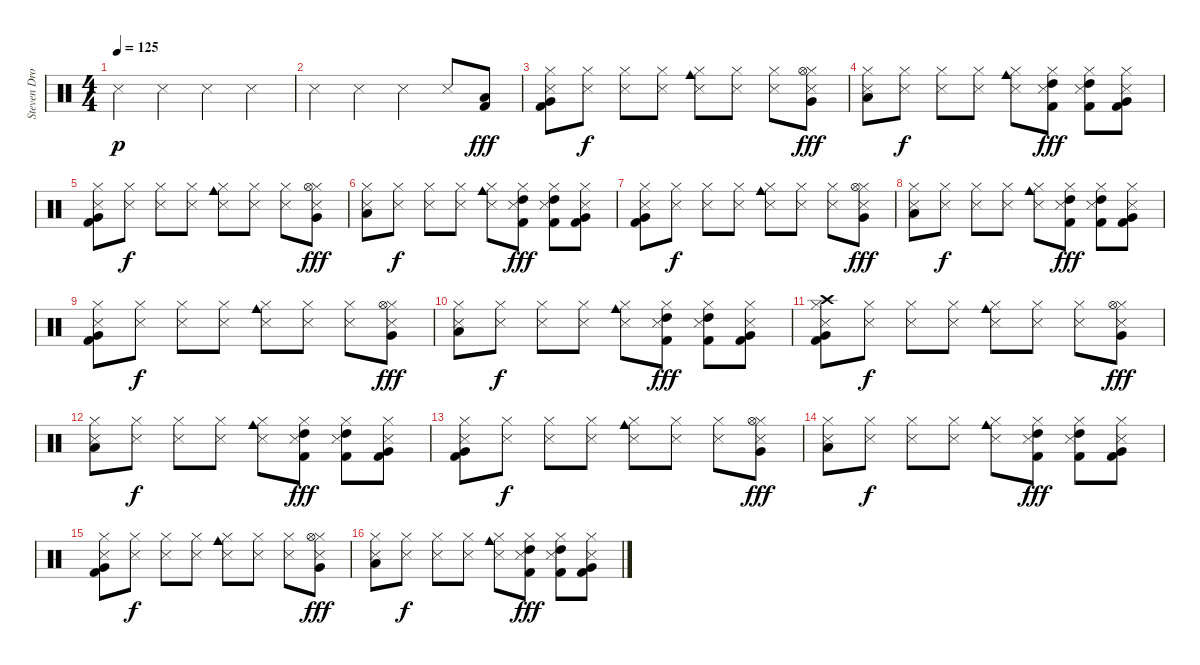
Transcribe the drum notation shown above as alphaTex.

\track ("Steven Drozd (Drums)" "Steven Dro") {instrument percussion}
\staff {score}
\articulation defaults
\ts (4 4)
\tempo 125
\clef neutral
\ks c "Metronome (hit)".4{dy p} "Metronome (hit)".4 "Metronome (hit)".4 "Metronome (hit)".4
|
"Metronome (hit)".4 "Metronome (hit)".4 "Metronome (hit)".4 "Metronome (hit)".8 ("Low Floor Tom (hit)" "Kick (hit) 2").8{dy fff} |
("Hi-Hat (closed)" "Metronome (hit)" "Very Low Tom (hit)" "Kick (hit) 2").8 ("Hi-Hat (closed)" "Metronome (hit)").8{dy f} ("Hi-Hat (closed)" "Metronome (hit)").8 ("Hi-Hat (closed)" "Metronome (hit)").8 ("Hi-Hat (closed)" "Metronome (hit)" "Cowbell medium (hit)").8 ("Hi-Hat (closed)" "Metronome (hit)").8 ("Hi-Hat (closed)" "Metronome (hit)").8 ("Hi-Hat (closed)" "Metronome (hit)" "Hi-Hat (open)" "Very Low Tom (hit)").8{dy fff} |
("Hi-Hat (closed)" "Metronome (hit)" "Low Floor Tom (hit)").8 ("Hi-Hat (closed)" "Metronome (hit)").8{dy f} ("Hi-Hat (closed)" "Metronome (hit)").8 ("Hi-Hat (closed)" "Metronome (hit)").8 ("Hi-Hat (closed)" "Metronome (hit)" "Cowbell medium (hit)").8 ("Hi-Hat (closed)" "Metronome (hit)" "High Tom (hit)" "Kick (hit) 2").8{dy fff} ("Hi-Hat (closed)" "Metronome (hit)" "High Tom (hit)" "Kick (hit) 2").8 ("Hi-Hat (closed)" "Metronome (hit)" "Very Low Tom (hit)" "Kick (hit) 2").8 |
("Hi-Hat (closed)" "Metronome (hit)" "Very Low Tom (hit)" "Kick (hit) 2").8 ("Hi-Hat (closed)" "Metronome (hit)").8{dy f} ("Hi-Hat (closed)" "Metronome (hit)").8 ("Hi-Hat (closed)" "Metronome (hit)").8 ("Hi-Hat (closed)" "Metronome (hit)" "Cowbell medium (hit)").8 ("Hi-Hat (closed)" "Metronome (hit)").8 ("Hi-Hat (closed)" "Metronome (hit)").8 ("Hi-Hat (closed)" "Metronome (hit)" "Hi-Hat (open)" "Very Low Tom (hit)").8{dy fff} |
("Hi-Hat (closed)" "Metronome (hit)" "Low Floor Tom (hit)").8 ("Hi-Hat (closed)" "Metronome (hit)").8{dy f} ("Hi-Hat (closed)" "Metronome (hit)").8 ("Hi-Hat (closed)" "Metronome (hit)").8 ("Hi-Hat (closed)" "Metronome (hit)" "Cowbell medium (hit)").8 ("Hi-Hat (closed)" "Metronome (hit)" "High Tom (hit)" "Kick (hit) 2").8{dy fff} ("Hi-Hat (closed)" "Metronome (hit)" "High Tom (hit)" "Kick (hit) 2").8 ("Hi-Hat (closed)" "Metronome (hit)" "Very Low Tom (hit)" "Kick (hit) 2").8 |
("Hi-Hat (closed)" "Metronome (hit)" "Very Low Tom (hit)" "Kick (hit) 2").8 ("Hi-Hat (closed)" "Metronome (hit)").8{dy f} ("Hi-Hat (closed)" "Metronome (hit)").8 ("Hi-Hat (closed)" "Metronome (hit)").8 ("Hi-Hat (closed)" "Metronome (hit)" "Cowbell medium (hit)").8 ("Hi-Hat (closed)" "Metronome (hit)").8 ("Hi-Hat (closed)" "Metronome (hit)").8 ("Hi-Hat (closed)" "Metronome (hit)" "Hi-Hat (open)" "Very Low Tom (hit)").8{dy fff} |
("Hi-Hat (closed)" "Metronome (hit)" "Low Floor Tom (hit)").8 ("Hi-Hat (closed)" "Metronome (hit)").8{dy f} ("Hi-Hat (closed)" "Metronome (hit)").8 ("Hi-Hat (closed)" "Metronome (hit)").8 ("Hi-Hat (closed)" "Metronome (hit)" "Cowbell medium (hit)").8 ("Hi-Hat (closed)" "Metronome (hit)" "High Tom (hit)" "Kick (hit) 2").8{dy fff} ("Hi-Hat (closed)" "Metronome (hit)" "High Tom (hit)" "Kick (hit) 2").8 ("Hi-Hat (closed)" "Metronome (hit)" "Very Low Tom (hit)" "Kick (hit) 2").8 |
("Hi-Hat (closed)" "Metronome (hit)" "Very Low Tom (hit)" "Kick (hit) 2").8 ("Hi-Hat (closed)" "Metronome (hit)").8{dy f} ("Hi-Hat (closed)" "Metronome (hit)").8 ("Hi-Hat (closed)" "Metronome (hit)").8 ("Hi-Hat (closed)" "Metronome (hit)" "Cowbell medium (hit)").8 ("Hi-Hat (closed)" "Metronome (hit)").8 ("Hi-Hat (closed)" "Metronome (hit)").8 ("Hi-Hat (closed)" "Metronome (hit)" "Hi-Hat (open)" "Very Low Tom (hit)").8{dy fff} |
("Hi-Hat (closed)" "Metronome (hit)" "Low Floor Tom (hit)").8 ("Hi-Hat (closed)" "Metronome (hit)").8{dy f} ("Hi-Hat (closed)" "Metronome (hit)").8 ("Hi-Hat (closed)" "Metronome (hit)").8 ("Hi-Hat (closed)" "Metronome (hit)" "Cowbell medium (hit)").8 ("Hi-Hat (closed)" "Metronome (hit)" "High Tom (hit)" "Kick (hit) 2").8{dy fff} ("Hi-Hat (closed)" "Metronome (hit)" "High Tom (hit)" "Kick (hit) 2").8 ("Hi-Hat (closed)" "Metronome (hit)" "Very Low Tom (hit)" "Kick (hit) 2").8 |
("Hi-Hat (closed)" "Metronome (hit)" "Crash high (hit)" "Very Low Tom (hit)" "Kick (hit) 2").8 ("Hi-Hat (closed)" "Metronome (hit)").8{dy f} ("Hi-Hat (closed)" "Metronome (hit)").8 ("Hi-Hat (closed)" "Metronome (hit)").8 ("Hi-Hat (closed)" "Metronome (hit)" "Cowbell medium (hit)").8 ("Hi-Hat (closed)" "Metronome (hit)").8 ("Hi-Hat (closed)" "Metronome (hit)").8 ("Hi-Hat (closed)" "Metronome (hit)" "Hi-Hat (open)" "Very Low Tom (hit)").8{dy fff} |
("Hi-Hat (closed)" "Metronome (hit)" "Low Floor Tom (hit)").8 ("Hi-Hat (closed)" "Metronome (hit)").8{dy f} ("Hi-Hat (closed)" "Metronome (hit)").8 ("Hi-Hat (closed)" "Metronome (hit)").8 ("Hi-Hat (closed)" "Metronome (hit)" "Cowbell medium (hit)").8 ("Hi-Hat (closed)" "Metronome (hit)" "High Tom (hit)" "Kick (hit) 2").8{dy fff} ("Hi-Hat (closed)" "Metronome (hit)" "High Tom (hit)" "Kick (hit) 2").8 ("Hi-Hat (closed)" "Metronome (hit)" "Very Low Tom (hit)" "Kick (hit) 2").8 |
("Hi-Hat (closed)" "Metronome (hit)" "Very Low Tom (hit)" "Kick (hit) 2").8 ("Hi-Hat (closed)" "Metronome (hit)").8{dy f} ("Hi-Hat (closed)" "Metronome (hit)").8 ("Hi-Hat (closed)" "Metronome (hit)").8 ("Hi-Hat (closed)" "Metronome (hit)" "Cowbell medium (hit)").8 ("Hi-Hat (closed)" "Metronome (hit)").8 ("Hi-Hat (closed)" "Metronome (hit)").8 ("Hi-Hat (closed)" "Metronome (hit)" "Hi-Hat (open)" "Very Low Tom (hit)").8{dy fff} |
("Hi-Hat (closed)" "Metronome (hit)" "Low Floor Tom (hit)").8 ("Hi-Hat (closed)" "Metronome (hit)").8{dy f} ("Hi-Hat (closed)" "Metronome (hit)").8 ("Hi-Hat (closed)" "Metronome (hit)").8 ("Hi-Hat (closed)" "Metronome (hit)" "Cowbell medium (hit)").8 ("Hi-Hat (closed)" "Metronome (hit)" "High Tom (hit)" "Kick (hit) 2").8{dy fff} ("Hi-Hat (closed)" "Metronome (hit)" "High Tom (hit)" "Kick (hit) 2").8 ("Hi-Hat (closed)" "Metronome (hit)" "Very Low Tom (hit)" "Kick (hit) 2").8 |
("Hi-Hat (closed)" "Metronome (hit)" "Very Low Tom (hit)" "Kick (hit) 2").8 ("Hi-Hat (closed)" "Metronome (hit)").8{dy f} ("Hi-Hat (closed)" "Metronome (hit)").8 ("Hi-Hat (closed)" "Metronome (hit)").8 ("Hi-Hat (closed)" "Metronome (hit)" "Cowbell medium (hit)").8 ("Hi-Hat (closed)" "Metronome (hit)").8 ("Hi-Hat (closed)" "Metronome (hit)").8 ("Hi-Hat (closed)" "Metronome (hit)" "Hi-Hat (open)" "Very Low Tom (hit)").8{dy fff} |
("Hi-Hat (closed)" "Metronome (hit)" "Low Floor Tom (hit)").8 ("Hi-Hat (closed)" "Metronome (hit)").8{dy f} ("Hi-Hat (closed)" "Metronome (hit)").8 ("Hi-Hat (closed)" "Metronome (hit)").8 ("Hi-Hat (closed)" "Metronome (hit)" "Cowbell medium (hit)").8 ("Hi-Hat (closed)" "Metronome (hit)" "High Tom (hit)" "Kick (hit) 2").8{dy fff} ("Hi-Hat (closed)" "Metronome (hit)" "High Tom (hit)" "Kick (hit) 2").8 ("Hi-Hat (closed)" "Metronome (hit)" "Very Low Tom (hit)" "Kick (hit) 2").8
